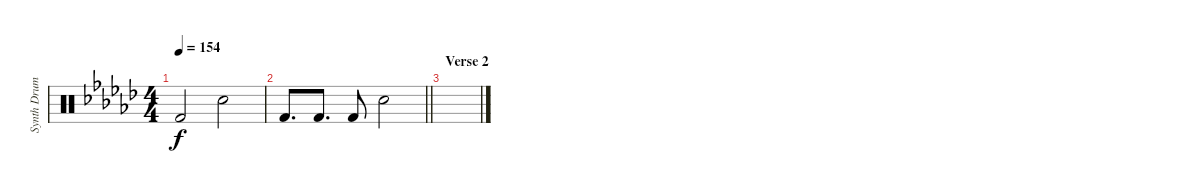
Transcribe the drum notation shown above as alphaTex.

\track ("Synth Drums" "Synth Drum") {instrument percussion}
\staff {score}
\articulation defaults
\ts (4 4)
\tempo 154
\clef neutral
\ks gb "Kick (hit) 2".2{dy f} "Electric Snare (hit)".2
|
\barLineRight lightlight "Kick (hit) 2".8{d} "Kick (hit) 2".8{d} "Kick (hit) 2".8 "Electric Snare (hit)".2
|
\section ("" "Verse 2")
